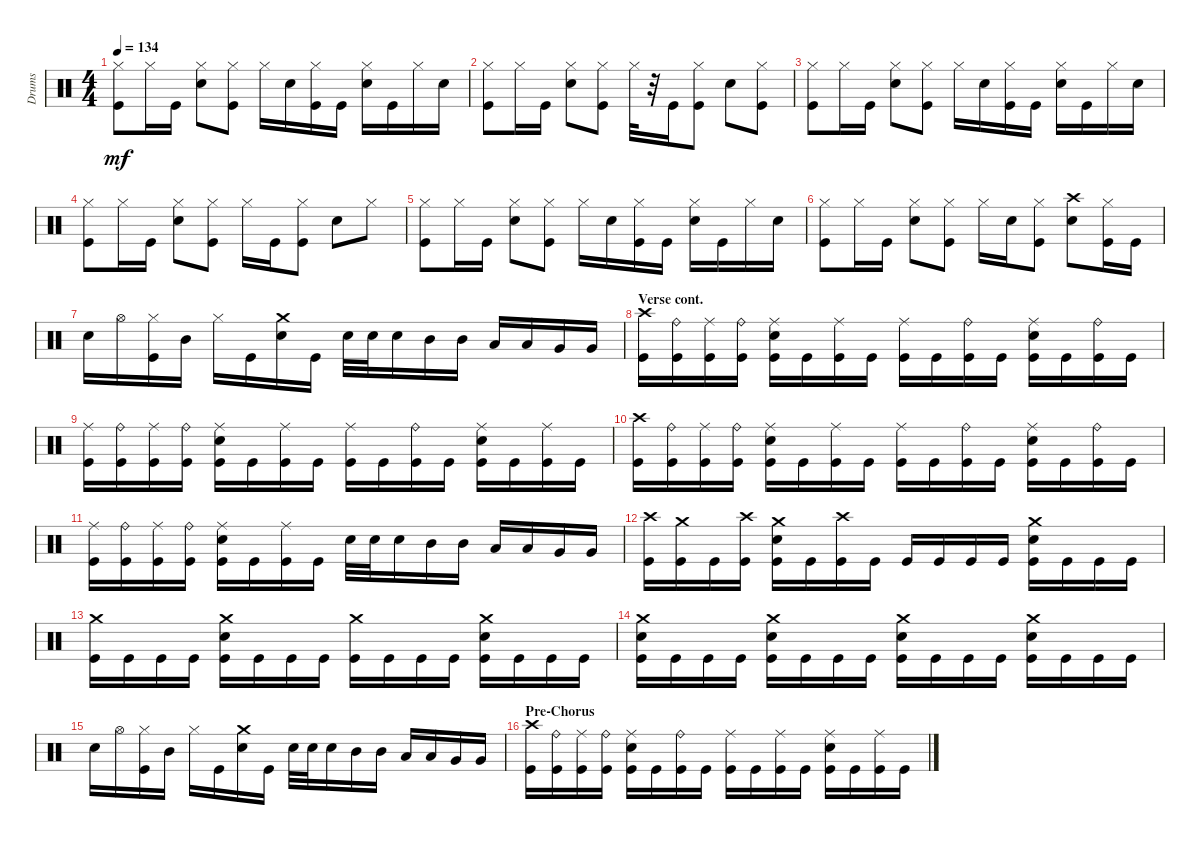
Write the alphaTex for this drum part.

\track ("Drums" "Drums") {instrument percussion}
\staff {score}
\articulation defaults
\ts (4 4)
\tempo 134
\clef neutral
\ks aminor
("Kick (hit)" "Hi-Hat (closed)").8{dy mf} "Hi-Hat (closed)".16 "Kick (hit)".16 ("Hi-Hat (closed)" "Snare (hit) 2").8 ("Kick (hit)" "Hi-Hat (closed)").8 "Hi-Hat (closed)".16 "Snare (hit) 2".16 ("Kick (hit)" "Hi-Hat (closed)").16 "Kick (hit)".16 ("Snare (hit) 2" "Hi-Hat (closed)").16 "Kick (hit)".16 "Hi-Hat (closed)".16 "Snare (hit) 2".16 |
("Hi-Hat (closed)" "Kick (hit)").8 "Hi-Hat (closed)".16 "Kick (hit)".16 ("Snare (hit) 2" "Hi-Hat (closed)").8 ("Kick (hit)" "Hi-Hat (closed)").8 "Hi-Hat (closed)".32 r.32 "Kick (hit)".16 ("Kick (hit)" "Hi-Hat (closed)").8 "Snare (hit) 2".8 ("Kick (hit)" "Hi-Hat (closed)").8 |
("Kick (hit)" "Hi-Hat (closed)").8 "Hi-Hat (closed)".16 "Kick (hit)".16 ("Snare (hit) 2" "Hi-Hat (closed)").8 ("Kick (hit)" "Hi-Hat (closed)").8 "Hi-Hat (closed)".16 "Snare (hit) 2".16 ("Hi-Hat (closed)" "Kick (hit)").16 "Kick (hit)".16 ("Hi-Hat (closed)" "Snare (hit) 2").16 "Kick (hit)".16 "Hi-Hat (closed)".16 "Snare (hit) 2".16 |
("Kick (hit)" "Hi-Hat (closed)").8 "Hi-Hat (closed)".16 "Kick (hit)".16 ("Snare (hit) 2" "Hi-Hat (closed)").8 ("Hi-Hat (closed)" "Kick (hit)").8 "Hi-Hat (closed)".16 "Kick (hit)".16 ("Hi-Hat (closed)" "Kick (hit)").8 "Snare (hit) 2".8 "Hi-Hat (closed)".8 |
("Hi-Hat (closed)" "Kick (hit)").8 "Hi-Hat (closed)".16 "Kick (hit)".16 ("Snare (hit) 2" "Hi-Hat (closed)").8 ("Kick (hit)" "Hi-Hat (closed)").8 "Hi-Hat (closed)".16 "Snare (hit) 2".16 ("Kick (hit)" "Hi-Hat (closed)").16 "Kick (hit)".16 ("Snare (hit) 2" "Hi-Hat (closed)").16 "Kick (hit)".16 "Hi-Hat (closed)".16 "Snare (hit) 2".16 |
("Hi-Hat (closed)" "Kick (hit)").8 "Hi-Hat (closed)".16 "Kick (hit)".16 ("Hi-Hat (closed)" "Snare (hit) 2").8 ("Hi-Hat (closed)" "Kick (hit)").8 "Hi-Hat (closed)".16 "Snare (hit) 2".16 ("Hi-Hat (closed)" "Kick (hit)").8 ("Snare (hit) 2" "Crash high (hit)").8 ("Hi-Hat (closed)" "Kick (hit)").16 "Kick (hit)".16 |
"Snare (hit) 2".16 "Hi-Hat (open)".16 ("Kick (hit)" "Hi-Hat (closed)").16 "Mid Tom (hit)".16 "Hi-Hat (closed)".16 "Kick (hit)".16 ("Snare (hit) 2" "Crash medium (hit)").16 "Kick (hit)".16 "Snare (hit) 2".32 "Snare (hit) 2".32 "Snare (hit) 2".16 "Mid Tom (hit)".16 "Mid Tom (hit)".16 "Low Tom (hit)".16 "Low Tom (hit)".16 "Very Low Tom (hit)".16 "Very Low Tom (hit)".16 |
\section ("" "Verse cont.")
("Crash high (hit)" "Kick (hit)").16 ("Kick (hit)" "Ride (bell)").16 ("Kick (hit)" "Ride (middle)").16 ("Ride (bell)" "Kick (hit)").16 ("Ride (middle)" "Snare (hit) 2" "Kick (hit)").16 "Kick (hit)".16 ("Kick (hit)" "Ride (middle)").16 "Kick (hit)".16 ("Ride (middle)" "Kick (hit)").16 "Kick (hit)".16 ("Ride (bell)" "Kick (hit)").16 "Kick (hit)".16 ("Kick (hit)" "Snare (hit) 2" "Ride (middle)").16 "Kick (hit)".16 ("Kick (hit)" "Ride (bell)").16 "Kick (hit)".16 |
("Kick (hit)" "Ride (middle)").16 ("Kick (hit)" "Ride (bell)").16 ("Ride (middle)" "Kick (hit)").16 ("Ride (bell)" "Kick (hit)").16 ("Kick (hit)" "Ride (middle)" "Snare (hit) 2").16 "Kick (hit)".16 ("Ride (middle)" "Kick (hit)").16 "Kick (hit)".16 ("Kick (hit)" "Ride (middle)").16 "Kick (hit)".16 ("Ride (bell)" "Kick (hit)").16 "Kick (hit)".16 ("Kick (hit)" "Ride (middle)" "Snare (hit) 2").16 "Kick (hit)".16 ("Kick (hit)" "Ride (middle)").16 "Kick (hit)".16 |
("Crash high (hit)" "Kick (hit)").16 ("Kick (hit)" "Ride (bell)").16 ("Kick (hit)" "Ride (middle)").16 ("Ride (bell)" "Kick (hit)").16 ("Ride (middle)" "Snare (hit) 2" "Kick (hit)").16 "Kick (hit)".16 ("Kick (hit)" "Ride (middle)").16 "Kick (hit)".16 ("Ride (middle)" "Kick (hit)").16 "Kick (hit)".16 ("Ride (bell)" "Kick (hit)").16 "Kick (hit)".16 ("Kick (hit)" "Snare (hit) 2" "Ride (middle)").16 "Kick (hit)".16 ("Kick (hit)" "Ride (bell)").16 "Kick (hit)".16 |
("Kick (hit)" "Ride (middle)").16 ("Kick (hit)" "Ride (bell)").16 ("Ride (middle)" "Kick (hit)").16 ("Ride (bell)" "Kick (hit)").16 ("Snare (hit) 2" "Kick (hit)" "Ride (middle)").16 "Kick (hit)".16 ("Kick (hit)" "Ride (middle)").16 "Kick (hit)".16 "Snare (hit) 2".32 "Snare (hit) 2".32 "Snare (hit) 2".16 "Mid Tom (hit)".16 "Mid Tom (hit)".16 "Low Tom (hit)".16 "Low Tom (hit)".16 "Very Low Tom (hit)".16 "Very Low Tom (hit)".16 |
("Crash high (hit)" "Kick (hit)").16 ("Kick (hit)" "Crash medium (hit)").16 "Kick (hit)".16 ("Crash high (hit)" "Kick (hit)").16 ("Kick (hit)" "Snare (hit) 2" "Crash medium (hit)").16 "Kick (hit)".16 ("Crash high (hit)" "Kick (hit)").16 "Kick (hit)".16 "Kick (hit)".16 "Kick (hit)".16 "Kick (hit)".16 "Kick (hit)".16 ("Snare (hit) 2" "Kick (hit)" "Crash medium (hit)").16 "Kick (hit)".16 "Kick (hit)".16 "Kick (hit)".16 |
("Crash medium (hit)" "Kick (hit)").16 "Kick (hit)".16 "Kick (hit)".16 "Kick (hit)".16 ("Snare (hit) 2" "Kick (hit)" "Crash medium (hit)").16 "Kick (hit)".16 "Kick (hit)".16 "Kick (hit)".16 ("Kick (hit)" "Crash medium (hit)").16 "Kick (hit)".16 "Kick (hit)".16 "Kick (hit)".16 ("Kick (hit)" "Snare (hit) 2" "Crash medium (hit)").16 "Kick (hit)".16 "Kick (hit)".16 "Kick (hit)".16 |
("Kick (hit)" "Snare (hit) 2" "Crash medium (hit)").16 "Kick (hit)".16 "Kick (hit)".16 "Kick (hit)".16 ("Crash medium (hit)" "Snare (hit) 2" "Kick (hit)").16 "Kick (hit)".16 "Kick (hit)".16 "Kick (hit)".16 ("Snare (hit) 2" "Kick (hit)" "Crash medium (hit)").16 "Kick (hit)".16 "Kick (hit)".16 "Kick (hit)".16 ("Kick (hit)" "Snare (hit) 2" "Crash medium (hit)").16 "Kick (hit)".16 "Kick (hit)".16 "Kick (hit)".16 |
"Snare (hit) 2".16 "Hi-Hat (open)".16 ("Kick (hit)" "Hi-Hat (closed)").16 "Mid Tom (hit)".16 "Hi-Hat (closed)".16 "Kick (hit)".16 ("Snare (hit) 2" "Crash medium (hit)").16 "Kick (hit)".16 "Snare (hit) 2".32 "Snare (hit) 2".32 "Snare (hit) 2".16 "Mid Tom (hit)".16 "Mid Tom (hit)".16 "Low Tom (hit)".16 "Low Tom (hit)".16 "Very Low Tom (hit)".16 "Very Low Tom (hit)".16 |
\section ("" "Pre-Chorus")
("Crash high (hit)" "Kick (hit)").16 ("Ride (bell)" "Kick (hit)").16 ("Ride (middle)" "Kick (hit)").16 ("Ride (bell)" "Kick (hit)").16 ("Ride (middle)" "Snare (hit) 2" "Kick (hit)").16 "Kick (hit)".16 ("Ride (bell)" "Kick (hit)").16 "Kick (hit)".16 ("Kick (hit)" "Ride (middle)").16 "Kick (hit)".16 ("Kick (hit)" "Ride (middle)").16 "Kick (hit)".16 ("Kick (hit)" "Ride (middle)" "Snare (hit) 2").16 "Kick (hit)".16 ("Kick (hit)" "Ride (middle)").16 "Kick (hit)".16
